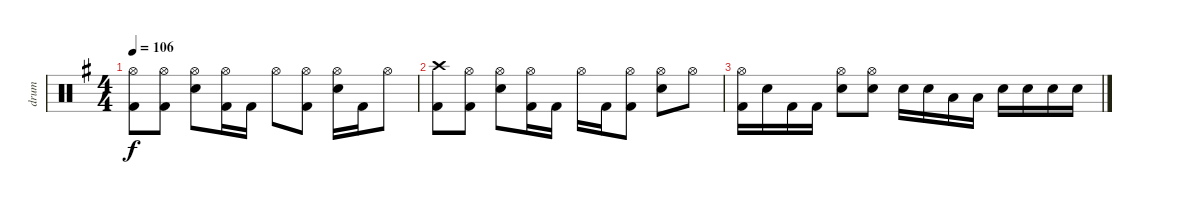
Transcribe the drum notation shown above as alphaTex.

\track ("drum" "drum") {instrument percussion}
\staff {score}
\articulation defaults
\ts (4 4)
\tempo 106
\clef neutral
\ks eminor
("Hi-Hat (open)" "Kick (hit) 2").8{dy f} ("Hi-Hat (open)" "Kick (hit) 2").8 ("Hi-Hat (open)" "Electric Snare (hit)").8 ("Hi-Hat (open)" "Kick (hit) 2").16 "Kick (hit) 2".16 "Hi-Hat (open)".8 ("Hi-Hat (open)" "Kick (hit) 2").8 ("Hi-Hat (open)" "Electric Snare (hit)").16 "Kick (hit) 2".16 "Hi-Hat (open)".8 |
("Crash high (hit)" "Kick (hit) 2").8 ("Hi-Hat (open)" "Kick (hit) 2").8 ("Hi-Hat (open)" "Electric Snare (hit)").8 ("Hi-Hat (open)" "Kick (hit) 2").16 "Kick (hit) 2".16 "Hi-Hat (open)".16 "Kick (hit) 2".16 ("Hi-Hat (open)" "Kick (hit) 2").8 ("Hi-Hat (open)" "Electric Snare (hit)").8 "Hi-Hat (open)".8 |
("Hi-Hat (open)" "Kick (hit) 2").16 "Electric Snare (hit)".16 "Kick (hit) 2".16 "Kick (hit) 2".16 ("Hi-Hat (open)" "Electric Snare (hit)").8 ("Hi-Hat (open)" "Electric Snare (hit)").8 "Electric Snare (hit)".16 "Electric Snare (hit)".16 "Low Tom (hit)".16 "Low Tom (hit)".16 "Electric Snare (hit)".16 "Electric Snare (hit)".16 "Electric Snare (hit)".16 "Electric Snare (hit)".16
